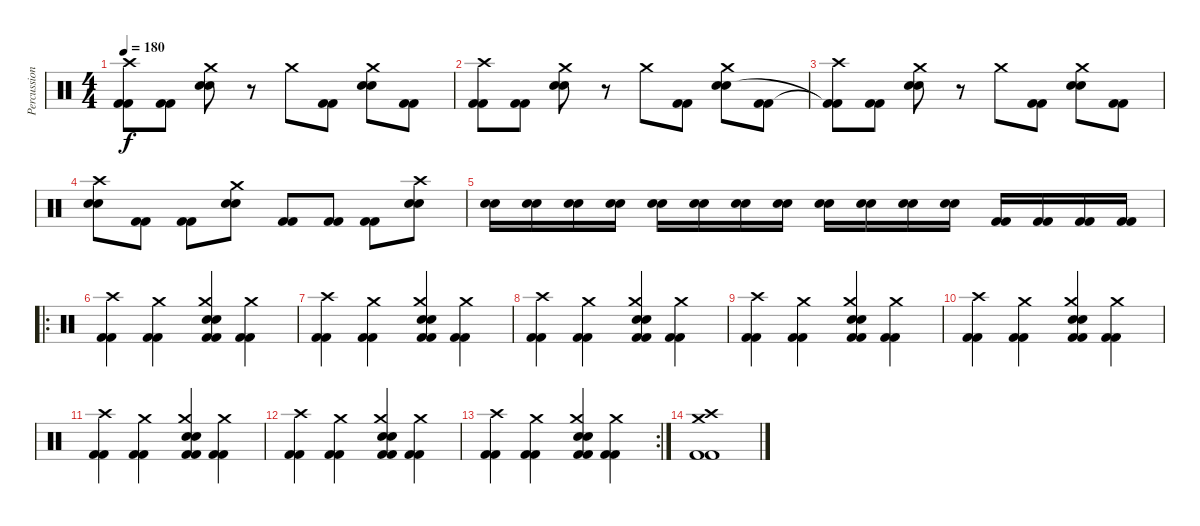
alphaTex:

\track ("Percussion" "Percussion") {instrument percussion}
\staff {score}
\articulation defaults
\ts (4 4)
\tempo 180
\clef neutral
\ks c
("Crash high (hit)" "Kick (hit) 2"{t} "Kick (hit) 2"{t}).8{dy f} ("Kick (hit) 2" "Kick (hit) 2").8 ("Crash medium (hit)" "Snare (hit) 2" "Snare (hit) 2").8 r.8 "Crash medium (hit)".8 ("Kick (hit) 2" "Kick (hit) 2").8 ("Crash medium (hit)" "Snare (hit) 2" "Snare (hit) 2").8 ("Kick (hit) 2" "Kick (hit) 2").8 |
("Crash high (hit)" "Kick (hit) 2" "Kick (hit) 2").8 ("Kick (hit) 2" "Kick (hit) 2").8 ("Crash medium (hit)" "Snare (hit) 2" "Snare (hit) 2").8 r.8 "Crash medium (hit)".8 ("Kick (hit) 2" "Kick (hit) 2").8 ("Crash medium (hit)" "Snare (hit) 2" "Snare (hit) 2").8 ("Kick (hit) 2" "Kick (hit) 2").8 |
("Crash high (hit)" "Kick (hit) 2"{t} "Kick (hit) 2"{t}).8 ("Kick (hit) 2" "Kick (hit) 2").8 ("Crash medium (hit)" "Snare (hit) 2" "Snare (hit) 2").8 r.8 "Crash medium (hit)".8 ("Kick (hit) 2" "Kick (hit) 2").8 ("Crash medium (hit)" "Snare (hit) 2" "Snare (hit) 2").8 ("Kick (hit) 2" "Kick (hit) 2").8 |
("Crash high (hit)" "Snare (hit) 2" "Snare (hit) 2").8 ("Kick (hit) 2" "Kick (hit) 2").8 ("Kick (hit) 2" "Kick (hit) 2").8 ("Crash medium (hit)" "Snare (hit) 2" "Snare (hit) 2").8 ("Kick (hit) 2" "Kick (hit) 2").8 ("Kick (hit) 2" "Kick (hit) 2").8 ("Kick (hit) 2" "Kick (hit) 2").8 ("Crash high (hit)" "Snare (hit) 2" "Snare (hit) 2").8 |
("Snare (hit) 2" "Snare (hit) 2").16 ("Snare (hit) 2" "Snare (hit) 2").16 ("Snare (hit) 2" "Snare (hit) 2").16 ("Snare (hit) 2" "Snare (hit) 2").16 ("Snare (hit) 2" "Snare (hit) 2").16 ("Snare (hit) 2" "Snare (hit) 2").16 ("Snare (hit) 2" "Snare (hit) 2").16 ("Snare (hit) 2" "Snare (hit) 2").16 ("Snare (hit) 2" "Snare (hit) 2").16 ("Snare (hit) 2" "Snare (hit) 2").16 ("Snare (hit) 2" "Snare (hit) 2").16 ("Snare (hit) 2" "Snare (hit) 2").16 ("Kick (hit) 2" "Kick (hit) 2").16 ("Kick (hit) 2" "Kick (hit) 2").16 ("Kick (hit) 2" "Kick (hit) 2").16 ("Kick (hit) 2" "Kick (hit) 2").16 |
\ro
("Crash high (hit)" "Kick (hit) 2" "Kick (hit) 2").4 ("Crash medium (hit)" "Kick (hit) 2" "Kick (hit) 2").4 ("Crash medium (hit)" "Kick (hit) 2" "Kick (hit) 2" "Snare (hit) 2" "Snare (hit) 2").4 ("Crash medium (hit)" "Kick (hit) 2" "Kick (hit) 2").4 |
("Crash high (hit)" "Kick (hit) 2" "Kick (hit) 2").4 ("Crash medium (hit)" "Kick (hit) 2" "Kick (hit) 2").4 ("Crash medium (hit)" "Kick (hit) 2" "Kick (hit) 2" "Snare (hit) 2" "Snare (hit) 2").4 ("Crash medium (hit)" "Kick (hit) 2" "Kick (hit) 2").4 |
("Crash high (hit)" "Kick (hit) 2" "Kick (hit) 2").4 ("Crash medium (hit)" "Kick (hit) 2" "Kick (hit) 2").4 ("Crash medium (hit)" "Kick (hit) 2" "Kick (hit) 2" "Snare (hit) 2" "Snare (hit) 2").4 ("Crash medium (hit)" "Kick (hit) 2" "Kick (hit) 2").4 |
("Crash high (hit)" "Kick (hit) 2" "Kick (hit) 2").4 ("Crash medium (hit)" "Kick (hit) 2" "Kick (hit) 2").4 ("Crash medium (hit)" "Kick (hit) 2" "Kick (hit) 2" "Snare (hit) 2" "Snare (hit) 2").4 ("Crash medium (hit)" "Kick (hit) 2" "Kick (hit) 2").4 |
("Crash high (hit)" "Kick (hit) 2" "Kick (hit) 2").4 ("Crash medium (hit)" "Kick (hit) 2" "Kick (hit) 2").4 ("Crash medium (hit)" "Kick (hit) 2" "Kick (hit) 2" "Snare (hit) 2" "Snare (hit) 2").4 ("Crash medium (hit)" "Kick (hit) 2" "Kick (hit) 2").4 |
("Crash high (hit)" "Kick (hit) 2" "Kick (hit) 2").4 ("Crash medium (hit)" "Kick (hit) 2" "Kick (hit) 2").4 ("Crash medium (hit)" "Kick (hit) 2" "Kick (hit) 2" "Snare (hit) 2" "Snare (hit) 2").4 ("Crash medium (hit)" "Kick (hit) 2" "Kick (hit) 2").4 |
("Crash high (hit)" "Kick (hit) 2" "Kick (hit) 2").4 ("Crash medium (hit)" "Kick (hit) 2" "Kick (hit) 2").4 ("Crash medium (hit)" "Kick (hit) 2" "Kick (hit) 2" "Snare (hit) 2" "Snare (hit) 2").4 ("Crash medium (hit)" "Kick (hit) 2" "Kick (hit) 2").4 |
\rc 2
("Crash high (hit)" "Kick (hit) 2" "Kick (hit) 2").4 ("Crash medium (hit)" "Kick (hit) 2" "Kick (hit) 2").4 ("Crash medium (hit)" "Kick (hit) 2" "Kick (hit) 2" "Snare (hit) 2" "Snare (hit) 2").4 ("Crash medium (hit)" "Kick (hit) 2" "Kick (hit) 2").4 |
("Crash medium (hit)" "Crash high (hit)" "Kick (hit) 2" "Kick (hit) 2").1
